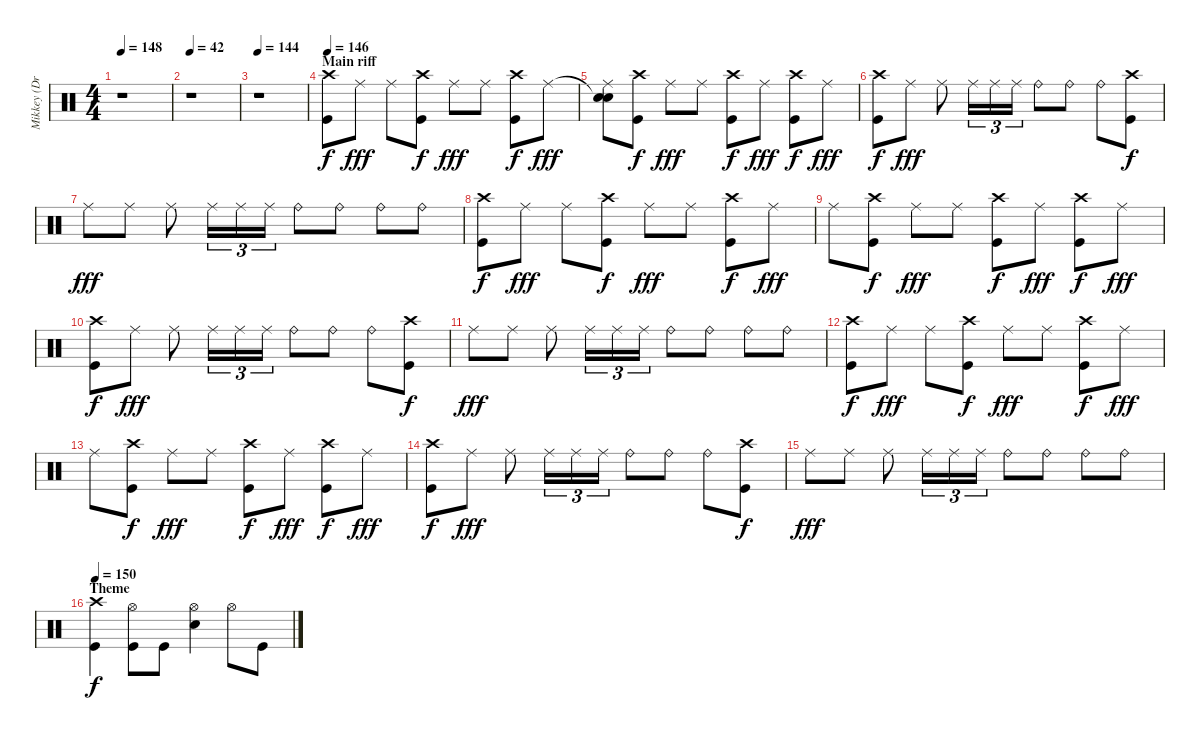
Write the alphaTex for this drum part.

\track ("Mikkey (Drums)" "Mikkey (Dr") {instrument percussion}
\staff {score}
\articulation defaults
\ts (4 4)
\tempo 148
\clef neutral
\ks c
r.1{dy f} |
\tempo 42
r.1 |
\tempo 144
r.1 |
\section ("" "Main riff")
\tempo 146
("Crash high (hit)" "Kick (hit)").8 "Ride (middle)".8{dy fff} "Ride (middle)".8 ("Crash high (hit)" "Kick (hit)").8{dy f} "Ride (middle)".8{dy fff} "Ride (middle)".8 ("Crash high (hit)" "Kick (hit)").8{dy f} "Ride (middle)".8{dy fff} |
("Snare (hit)"{t} "Ride (middle)" "Snare (hit)").8 ("Crash high (hit)" "Kick (hit)").8{dy f} "Ride (middle)".8{dy fff} "Ride (middle)".8 ("Crash high (hit)" "Kick (hit)").8{dy f} "Ride (middle)".8{dy fff} ("Crash high (hit)" "Kick (hit)").8{dy f} "Ride (middle)".8{dy fff} |
("Crash high (hit)" "Kick (hit)").8{dy f} "Ride (middle)".8{dy fff} "Ride (middle)".8 "Ride (middle)".16{tu (3 2)} "Ride (middle)".16{tu (3 2)} "Ride (middle)".16{tu (3 2)} "Ride (bell)".8 "Ride (bell)".8 "Ride (bell)".8 ("Crash high (hit)" "Kick (hit)").8{dy f} |
"Ride (middle)".8{dy fff} "Ride (middle)".8 "Ride (middle)".8 "Ride (middle)".16{tu (3 2)} "Ride (middle)".16{tu (3 2)} "Ride (middle)".16{tu (3 2)} "Ride (bell)".8 "Ride (bell)".8 "Ride (bell)".8 "Ride (bell)".8 |
("Crash high (hit)" "Kick (hit)").8{dy f} "Ride (middle)".8{dy fff} "Ride (middle)".8 ("Crash high (hit)" "Kick (hit)").8{dy f} "Ride (middle)".8{dy fff} "Ride (middle)".8 ("Crash high (hit)" "Kick (hit)").8{dy f} "Ride (middle)".8{dy fff} |
"Ride (middle)".8 ("Crash high (hit)" "Kick (hit)").8{dy f} "Ride (middle)".8{dy fff} "Ride (middle)".8 ("Crash high (hit)" "Kick (hit)").8{dy f} "Ride (middle)".8{dy fff} ("Crash high (hit)" "Kick (hit)").8{dy f} "Ride (middle)".8{dy fff} |
("Crash high (hit)" "Kick (hit)").8{dy f} "Ride (middle)".8{dy fff} "Ride (middle)".8 "Ride (middle)".16{tu (3 2)} "Ride (middle)".16{tu (3 2)} "Ride (middle)".16{tu (3 2)} "Ride (bell)".8 "Ride (bell)".8 "Ride (bell)".8 ("Crash high (hit)" "Kick (hit)").8{dy f} |
"Ride (middle)".8{dy fff} "Ride (middle)".8 "Ride (middle)".8 "Ride (middle)".16{tu (3 2)} "Ride (middle)".16{tu (3 2)} "Ride (middle)".16{tu (3 2)} "Ride (bell)".8 "Ride (bell)".8 "Ride (bell)".8 "Ride (bell)".8 |
("Crash high (hit)" "Kick (hit)").8{dy f} "Ride (middle)".8{dy fff} "Ride (middle)".8 ("Crash high (hit)" "Kick (hit)").8{dy f} "Ride (middle)".8{dy fff} "Ride (middle)".8 ("Crash high (hit)" "Kick (hit)").8{dy f} "Ride (middle)".8{dy fff} |
"Ride (middle)".8 ("Crash high (hit)" "Kick (hit)").8{dy f} "Ride (middle)".8{dy fff} "Ride (middle)".8 ("Crash high (hit)" "Kick (hit)").8{dy f} "Ride (middle)".8{dy fff} ("Crash high (hit)" "Kick (hit)").8{dy f} "Ride (middle)".8{dy fff} |
("Crash high (hit)" "Kick (hit)").8{dy f} "Ride (middle)".8{dy fff} "Ride (middle)".8 "Ride (middle)".16{tu (3 2)} "Ride (middle)".16{tu (3 2)} "Ride (middle)".16{tu (3 2)} "Ride (bell)".8 "Ride (bell)".8 "Ride (bell)".8 ("Crash high (hit)" "Kick (hit)").8{dy f} |
"Ride (middle)".8{dy fff} "Ride (middle)".8 "Ride (middle)".8 "Ride (middle)".16{tu (3 2)} "Ride (middle)".16{tu (3 2)} "Ride (middle)".16{tu (3 2)} "Ride (bell)".8 "Ride (bell)".8 "Ride (bell)".8 "Ride (bell)".8 |
\section ("" "Theme")
\tempo 150
("Crash high (hit)" "Kick (hit)").4{dy f} ("Hi-Hat (open)" "Kick (hit)").8 "Kick (hit)".8 ("Hi-Hat (open)" "Electric Snare (hit)").4 "Hi-Hat (open)".8 "Kick (hit)".8
